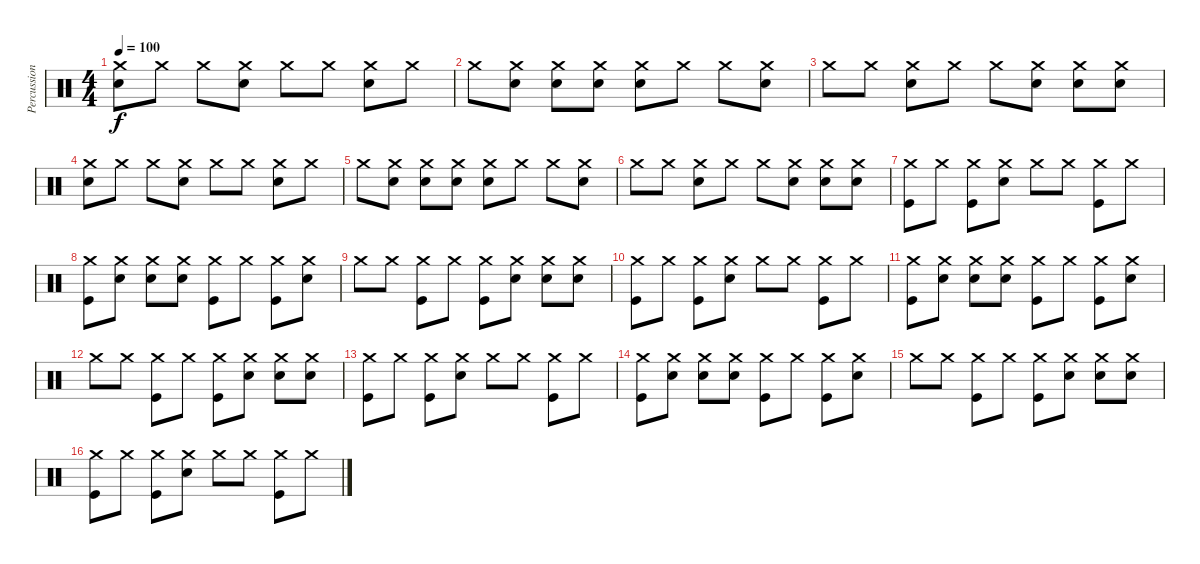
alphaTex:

\track ("Percussion" "Percussion") {instrument percussion}
\staff {score}
\articulation defaults
\ts (4 4)
\tempo 100
\clef neutral
\ks c
("Crash medium (hit)" "Electric Snare (hit)").8{dy f} "Crash medium (hit)".8 "Crash medium (hit)".8 ("Crash medium (hit)" "Electric Snare (hit)").8 "Crash medium (hit)".8 "Crash medium (hit)".8 ("Crash medium (hit)" "Electric Snare (hit)").8 "Crash medium (hit)".8 |
"Crash medium (hit)".8 ("Crash medium (hit)" "Electric Snare (hit)").8 ("Crash medium (hit)" "Electric Snare (hit)").8 ("Crash medium (hit)" "Electric Snare (hit)").8 ("Crash medium (hit)" "Electric Snare (hit)").8 "Crash medium (hit)".8 "Crash medium (hit)".8 ("Crash medium (hit)" "Electric Snare (hit)").8 |
"Crash medium (hit)".8 "Crash medium (hit)".8 ("Crash medium (hit)" "Electric Snare (hit)").8 "Crash medium (hit)".8 "Crash medium (hit)".8 ("Crash medium (hit)" "Electric Snare (hit)").8 ("Crash medium (hit)" "Electric Snare (hit)").8 ("Crash medium (hit)" "Electric Snare (hit)").8 |
("Crash medium (hit)" "Electric Snare (hit)").8 "Crash medium (hit)".8 "Crash medium (hit)".8 ("Crash medium (hit)" "Electric Snare (hit)").8 "Crash medium (hit)".8 "Crash medium (hit)".8 ("Crash medium (hit)" "Electric Snare (hit)").8 "Crash medium (hit)".8 |
"Crash medium (hit)".8 ("Crash medium (hit)" "Electric Snare (hit)").8 ("Crash medium (hit)" "Electric Snare (hit)").8 ("Crash medium (hit)" "Electric Snare (hit)").8 ("Crash medium (hit)" "Electric Snare (hit)").8 "Crash medium (hit)".8 "Crash medium (hit)".8 ("Crash medium (hit)" "Electric Snare (hit)").8 |
"Crash medium (hit)".8 "Crash medium (hit)".8 ("Crash medium (hit)" "Electric Snare (hit)").8 "Crash medium (hit)".8 "Crash medium (hit)".8 ("Crash medium (hit)" "Electric Snare (hit)").8 ("Crash medium (hit)" "Electric Snare (hit)").8 ("Crash medium (hit)" "Electric Snare (hit)").8 |
("Crash medium (hit)" "Kick (hit)").8 "Crash medium (hit)".8 ("Crash medium (hit)" "Kick (hit)").8 ("Crash medium (hit)" "Electric Snare (hit)").8 "Crash medium (hit)".8 "Crash medium (hit)".8 ("Crash medium (hit)" "Kick (hit)").8 "Crash medium (hit)".8 |
("Crash medium (hit)" "Kick (hit)").8 ("Crash medium (hit)" "Electric Snare (hit)").8 ("Crash medium (hit)" "Electric Snare (hit)").8 ("Crash medium (hit)" "Electric Snare (hit)").8 ("Crash medium (hit)" "Kick (hit)").8 "Crash medium (hit)".8 ("Crash medium (hit)" "Kick (hit)").8 ("Crash medium (hit)" "Electric Snare (hit)").8 |
"Crash medium (hit)".8 "Crash medium (hit)".8 ("Crash medium (hit)" "Kick (hit)").8 "Crash medium (hit)".8 ("Crash medium (hit)" "Kick (hit)").8 ("Crash medium (hit)" "Electric Snare (hit)").8 ("Crash medium (hit)" "Electric Snare (hit)").8 ("Crash medium (hit)" "Electric Snare (hit)").8 |
("Crash medium (hit)" "Kick (hit)").8 "Crash medium (hit)".8 ("Crash medium (hit)" "Kick (hit)").8 ("Crash medium (hit)" "Electric Snare (hit)").8 "Crash medium (hit)".8 "Crash medium (hit)".8 ("Crash medium (hit)" "Kick (hit)").8 "Crash medium (hit)".8 |
("Crash medium (hit)" "Kick (hit)").8 ("Crash medium (hit)" "Electric Snare (hit)").8 ("Crash medium (hit)" "Electric Snare (hit)").8 ("Crash medium (hit)" "Electric Snare (hit)").8 ("Crash medium (hit)" "Kick (hit)").8 "Crash medium (hit)".8 ("Crash medium (hit)" "Kick (hit)").8 ("Crash medium (hit)" "Electric Snare (hit)").8 |
"Crash medium (hit)".8 "Crash medium (hit)".8 ("Crash medium (hit)" "Kick (hit)").8 "Crash medium (hit)".8 ("Crash medium (hit)" "Kick (hit)").8 ("Crash medium (hit)" "Electric Snare (hit)").8 ("Crash medium (hit)" "Electric Snare (hit)").8 ("Crash medium (hit)" "Electric Snare (hit)").8 |
("Crash medium (hit)" "Kick (hit)").8 "Crash medium (hit)".8 ("Crash medium (hit)" "Kick (hit)").8 ("Crash medium (hit)" "Electric Snare (hit)").8 "Crash medium (hit)".8 "Crash medium (hit)".8 ("Crash medium (hit)" "Kick (hit)").8 "Crash medium (hit)".8 |
("Crash medium (hit)" "Kick (hit)").8 ("Crash medium (hit)" "Electric Snare (hit)").8 ("Crash medium (hit)" "Electric Snare (hit)").8 ("Crash medium (hit)" "Electric Snare (hit)").8 ("Crash medium (hit)" "Kick (hit)").8 "Crash medium (hit)".8 ("Crash medium (hit)" "Kick (hit)").8 ("Crash medium (hit)" "Electric Snare (hit)").8 |
"Crash medium (hit)".8 "Crash medium (hit)".8 ("Crash medium (hit)" "Kick (hit)").8 "Crash medium (hit)".8 ("Crash medium (hit)" "Kick (hit)").8 ("Crash medium (hit)" "Electric Snare (hit)").8 ("Crash medium (hit)" "Electric Snare (hit)").8 ("Crash medium (hit)" "Electric Snare (hit)").8 |
("Crash medium (hit)" "Kick (hit)").8 "Crash medium (hit)".8 ("Crash medium (hit)" "Kick (hit)").8 ("Crash medium (hit)" "Electric Snare (hit)").8 "Crash medium (hit)".8 "Crash medium (hit)".8 ("Crash medium (hit)" "Kick (hit)").8 "Crash medium (hit)".8
